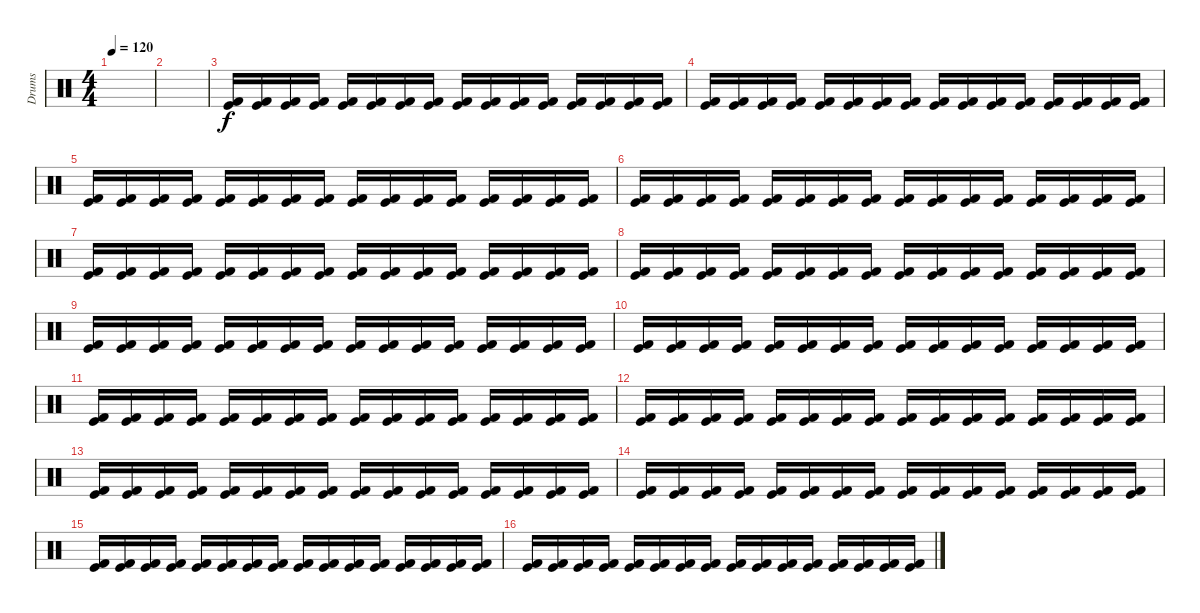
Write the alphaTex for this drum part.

\track ("Drums" "Drums") {instrument percussion}
\staff {score}
\articulation defaults
\ts (4 4)
\tempo 120
\clef neutral
\ks c
|
|
("Kick (hit) 2" "Kick (hit)").16 ("Kick (hit) 2" "Kick (hit)").16 ("Kick (hit) 2" "Kick (hit)").16 ("Kick (hit) 2" "Kick (hit)").16 ("Kick (hit) 2" "Kick (hit)").16 ("Kick (hit) 2" "Kick (hit)").16 ("Kick (hit) 2" "Kick (hit)").16 ("Kick (hit) 2" "Kick (hit)").16 ("Kick (hit) 2" "Kick (hit)").16 ("Kick (hit) 2" "Kick (hit)").16 ("Kick (hit) 2" "Kick (hit)").16 ("Kick (hit) 2" "Kick (hit)").16 ("Kick (hit) 2" "Kick (hit)").16 ("Kick (hit) 2" "Kick (hit)").16 ("Kick (hit) 2" "Kick (hit)").16 ("Kick (hit) 2" "Kick (hit)").16 |
("Kick (hit) 2" "Kick (hit)").16 ("Kick (hit) 2" "Kick (hit)").16 ("Kick (hit) 2" "Kick (hit)").16 ("Kick (hit) 2" "Kick (hit)").16 ("Kick (hit) 2" "Kick (hit)").16 ("Kick (hit) 2" "Kick (hit)").16 ("Kick (hit) 2" "Kick (hit)").16 ("Kick (hit) 2" "Kick (hit)").16 ("Kick (hit) 2" "Kick (hit)").16 ("Kick (hit) 2" "Kick (hit)").16 ("Kick (hit) 2" "Kick (hit)").16 ("Kick (hit) 2" "Kick (hit)").16 ("Kick (hit) 2" "Kick (hit)").16 ("Kick (hit) 2" "Kick (hit)").16 ("Kick (hit) 2" "Kick (hit)").16 ("Kick (hit) 2" "Kick (hit)").16 |
("Kick (hit) 2" "Kick (hit)").16 ("Kick (hit) 2" "Kick (hit)").16 ("Kick (hit) 2" "Kick (hit)").16 ("Kick (hit) 2" "Kick (hit)").16 ("Kick (hit) 2" "Kick (hit)").16 ("Kick (hit) 2" "Kick (hit)").16 ("Kick (hit) 2" "Kick (hit)").16 ("Kick (hit) 2" "Kick (hit)").16 ("Kick (hit) 2" "Kick (hit)").16 ("Kick (hit) 2" "Kick (hit)").16 ("Kick (hit) 2" "Kick (hit)").16 ("Kick (hit) 2" "Kick (hit)").16 ("Kick (hit) 2" "Kick (hit)").16 ("Kick (hit) 2" "Kick (hit)").16 ("Kick (hit) 2" "Kick (hit)").16 ("Kick (hit) 2" "Kick (hit)").16 |
("Kick (hit) 2" "Kick (hit)").16 ("Kick (hit) 2" "Kick (hit)").16 ("Kick (hit) 2" "Kick (hit)").16 ("Kick (hit) 2" "Kick (hit)").16 ("Kick (hit) 2" "Kick (hit)").16 ("Kick (hit) 2" "Kick (hit)").16 ("Kick (hit) 2" "Kick (hit)").16 ("Kick (hit) 2" "Kick (hit)").16 ("Kick (hit) 2" "Kick (hit)").16 ("Kick (hit) 2" "Kick (hit)").16 ("Kick (hit) 2" "Kick (hit)").16 ("Kick (hit) 2" "Kick (hit)").16 ("Kick (hit) 2" "Kick (hit)").16 ("Kick (hit) 2" "Kick (hit)").16 ("Kick (hit) 2" "Kick (hit)").16 ("Kick (hit) 2" "Kick (hit)").16 |
("Kick (hit) 2" "Kick (hit)").16 ("Kick (hit) 2" "Kick (hit)").16 ("Kick (hit) 2" "Kick (hit)").16 ("Kick (hit) 2" "Kick (hit)").16 ("Kick (hit) 2" "Kick (hit)").16 ("Kick (hit) 2" "Kick (hit)").16 ("Kick (hit) 2" "Kick (hit)").16 ("Kick (hit) 2" "Kick (hit)").16 ("Kick (hit) 2" "Kick (hit)").16 ("Kick (hit) 2" "Kick (hit)").16 ("Kick (hit) 2" "Kick (hit)").16 ("Kick (hit) 2" "Kick (hit)").16 ("Kick (hit) 2" "Kick (hit)").16 ("Kick (hit) 2" "Kick (hit)").16 ("Kick (hit) 2" "Kick (hit)").16 ("Kick (hit) 2" "Kick (hit)").16 |
("Kick (hit) 2" "Kick (hit)").16 ("Kick (hit) 2" "Kick (hit)").16 ("Kick (hit) 2" "Kick (hit)").16 ("Kick (hit) 2" "Kick (hit)").16 ("Kick (hit) 2" "Kick (hit)").16 ("Kick (hit) 2" "Kick (hit)").16 ("Kick (hit) 2" "Kick (hit)").16 ("Kick (hit) 2" "Kick (hit)").16 ("Kick (hit) 2" "Kick (hit)").16 ("Kick (hit) 2" "Kick (hit)").16 ("Kick (hit) 2" "Kick (hit)").16 ("Kick (hit) 2" "Kick (hit)").16 ("Kick (hit) 2" "Kick (hit)").16 ("Kick (hit) 2" "Kick (hit)").16 ("Kick (hit) 2" "Kick (hit)").16 ("Kick (hit) 2" "Kick (hit)").16 |
("Kick (hit) 2" "Kick (hit)").16 ("Kick (hit) 2" "Kick (hit)").16 ("Kick (hit) 2" "Kick (hit)").16 ("Kick (hit) 2" "Kick (hit)").16 ("Kick (hit) 2" "Kick (hit)").16 ("Kick (hit) 2" "Kick (hit)").16 ("Kick (hit) 2" "Kick (hit)").16 ("Kick (hit) 2" "Kick (hit)").16 ("Kick (hit) 2" "Kick (hit)").16 ("Kick (hit) 2" "Kick (hit)").16 ("Kick (hit) 2" "Kick (hit)").16 ("Kick (hit) 2" "Kick (hit)").16 ("Kick (hit) 2" "Kick (hit)").16 ("Kick (hit) 2" "Kick (hit)").16 ("Kick (hit) 2" "Kick (hit)").16 ("Kick (hit) 2" "Kick (hit)").16 |
("Kick (hit) 2" "Kick (hit)").16 ("Kick (hit) 2" "Kick (hit)").16 ("Kick (hit) 2" "Kick (hit)").16 ("Kick (hit) 2" "Kick (hit)").16 ("Kick (hit) 2" "Kick (hit)").16 ("Kick (hit) 2" "Kick (hit)").16 ("Kick (hit) 2" "Kick (hit)").16 ("Kick (hit) 2" "Kick (hit)").16 ("Kick (hit) 2" "Kick (hit)").16 ("Kick (hit) 2" "Kick (hit)").16 ("Kick (hit) 2" "Kick (hit)").16 ("Kick (hit) 2" "Kick (hit)").16 ("Kick (hit) 2" "Kick (hit)").16 ("Kick (hit) 2" "Kick (hit)").16 ("Kick (hit) 2" "Kick (hit)").16 ("Kick (hit) 2" "Kick (hit)").16 |
("Kick (hit) 2" "Kick (hit)").16 ("Kick (hit) 2" "Kick (hit)").16 ("Kick (hit) 2" "Kick (hit)").16 ("Kick (hit) 2" "Kick (hit)").16 ("Kick (hit) 2" "Kick (hit)").16 ("Kick (hit) 2" "Kick (hit)").16 ("Kick (hit) 2" "Kick (hit)").16 ("Kick (hit) 2" "Kick (hit)").16 ("Kick (hit) 2" "Kick (hit)").16 ("Kick (hit) 2" "Kick (hit)").16 ("Kick (hit) 2" "Kick (hit)").16 ("Kick (hit) 2" "Kick (hit)").16 ("Kick (hit) 2" "Kick (hit)").16 ("Kick (hit) 2" "Kick (hit)").16 ("Kick (hit) 2" "Kick (hit)").16 ("Kick (hit) 2" "Kick (hit)").16 |
("Kick (hit) 2" "Kick (hit)").16 ("Kick (hit) 2" "Kick (hit)").16 ("Kick (hit) 2" "Kick (hit)").16 ("Kick (hit) 2" "Kick (hit)").16 ("Kick (hit) 2" "Kick (hit)").16 ("Kick (hit) 2" "Kick (hit)").16 ("Kick (hit) 2" "Kick (hit)").16 ("Kick (hit) 2" "Kick (hit)").16 ("Kick (hit) 2" "Kick (hit)").16 ("Kick (hit) 2" "Kick (hit)").16 ("Kick (hit) 2" "Kick (hit)").16 ("Kick (hit) 2" "Kick (hit)").16 ("Kick (hit) 2" "Kick (hit)").16 ("Kick (hit) 2" "Kick (hit)").16 ("Kick (hit) 2" "Kick (hit)").16 ("Kick (hit) 2" "Kick (hit)").16 |
("Kick (hit) 2" "Kick (hit)").16 ("Kick (hit) 2" "Kick (hit)").16 ("Kick (hit) 2" "Kick (hit)").16 ("Kick (hit) 2" "Kick (hit)").16 ("Kick (hit) 2" "Kick (hit)").16 ("Kick (hit) 2" "Kick (hit)").16 ("Kick (hit) 2" "Kick (hit)").16 ("Kick (hit) 2" "Kick (hit)").16 ("Kick (hit) 2" "Kick (hit)").16 ("Kick (hit) 2" "Kick (hit)").16 ("Kick (hit) 2" "Kick (hit)").16 ("Kick (hit) 2" "Kick (hit)").16 ("Kick (hit) 2" "Kick (hit)").16 ("Kick (hit) 2" "Kick (hit)").16 ("Kick (hit) 2" "Kick (hit)").16 ("Kick (hit) 2" "Kick (hit)").16 |
("Kick (hit) 2" "Kick (hit)").16 ("Kick (hit) 2" "Kick (hit)").16 ("Kick (hit) 2" "Kick (hit)").16 ("Kick (hit) 2" "Kick (hit)").16 ("Kick (hit) 2" "Kick (hit)").16 ("Kick (hit) 2" "Kick (hit)").16 ("Kick (hit) 2" "Kick (hit)").16 ("Kick (hit) 2" "Kick (hit)").16 ("Kick (hit) 2" "Kick (hit)").16 ("Kick (hit) 2" "Kick (hit)").16 ("Kick (hit) 2" "Kick (hit)").16 ("Kick (hit) 2" "Kick (hit)").16 ("Kick (hit) 2" "Kick (hit)").16 ("Kick (hit) 2" "Kick (hit)").16 ("Kick (hit) 2" "Kick (hit)").16 ("Kick (hit) 2" "Kick (hit)").16 |
("Kick (hit) 2" "Kick (hit)").16 ("Kick (hit) 2" "Kick (hit)").16 ("Kick (hit) 2" "Kick (hit)").16 ("Kick (hit) 2" "Kick (hit)").16 ("Kick (hit) 2" "Kick (hit)").16 ("Kick (hit) 2" "Kick (hit)").16 ("Kick (hit) 2" "Kick (hit)").16 ("Kick (hit) 2" "Kick (hit)").16 ("Kick (hit) 2" "Kick (hit)").16 ("Kick (hit) 2" "Kick (hit)").16 ("Kick (hit) 2" "Kick (hit)").16 ("Kick (hit) 2" "Kick (hit)").16 ("Kick (hit) 2" "Kick (hit)").16 ("Kick (hit) 2" "Kick (hit)").16 ("Kick (hit) 2" "Kick (hit)").16 ("Kick (hit) 2" "Kick (hit)").16 |
("Kick (hit) 2" "Kick (hit)").16 ("Kick (hit) 2" "Kick (hit)").16 ("Kick (hit) 2" "Kick (hit)").16 ("Kick (hit) 2" "Kick (hit)").16 ("Kick (hit) 2" "Kick (hit)").16 ("Kick (hit) 2" "Kick (hit)").16 ("Kick (hit) 2" "Kick (hit)").16 ("Kick (hit) 2" "Kick (hit)").16 ("Kick (hit) 2" "Kick (hit)").16 ("Kick (hit) 2" "Kick (hit)").16 ("Kick (hit) 2" "Kick (hit)").16 ("Kick (hit) 2" "Kick (hit)").16 ("Kick (hit) 2" "Kick (hit)").16 ("Kick (hit) 2" "Kick (hit)").16 ("Kick (hit) 2" "Kick (hit)").16 ("Kick (hit) 2" "Kick (hit)").16
